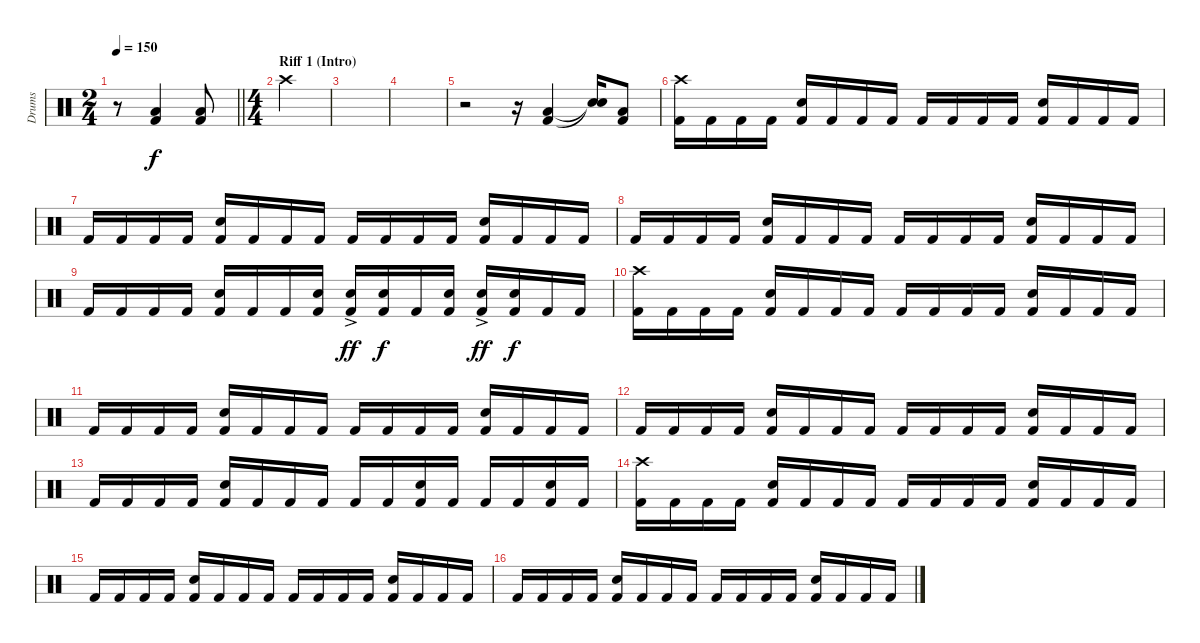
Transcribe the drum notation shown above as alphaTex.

\track ("Drums" "Drums") {instrument percussion}
\staff {score}
\articulation defaults
\ts (2 4)
\tempo 150
\clef neutral
\barLineRight lightlight
\ks c
r.8{dy f} ("Low Tom (hit)" "Kick (hit) 2").4 ("Low Tom (hit)" "Kick (hit) 2").8 |
\ts (4 4)
\section ("" "Riff 1 (Intro)")
"Crash high (hit)".4 |
|
|
r.2 r.16 ("Low Tom (hit)" "Kick (hit) 2").4 ("Snare (hit)"{t} "Snare (hit)"{t}).16 ("Low Tom (hit)" "Kick (hit) 2").8 |
("Crash high (hit)" "Kick (hit) 2").16 "Kick (hit) 2".16 "Kick (hit) 2".16 "Kick (hit) 2".16 ("Snare (hit) 2" "Kick (hit) 2").16 "Kick (hit) 2".16 "Kick (hit) 2".16 "Kick (hit) 2".16 "Kick (hit) 2".16 "Kick (hit) 2".16 "Kick (hit) 2".16 "Kick (hit) 2".16 ("Snare (hit) 2" "Kick (hit) 2").16 "Kick (hit) 2".16 "Kick (hit) 2".16 "Kick (hit) 2".16 |
"Kick (hit) 2".16 "Kick (hit) 2".16 "Kick (hit) 2".16 "Kick (hit) 2".16 ("Snare (hit) 2" "Kick (hit) 2").16 "Kick (hit) 2".16 "Kick (hit) 2".16 "Kick (hit) 2".16 "Kick (hit) 2".16 "Kick (hit) 2".16 "Kick (hit) 2".16 "Kick (hit) 2".16 ("Snare (hit) 2" "Kick (hit) 2").16 "Kick (hit) 2".16 "Kick (hit) 2".16 "Kick (hit) 2".16 |
"Kick (hit) 2".16 "Kick (hit) 2".16 "Kick (hit) 2".16 "Kick (hit) 2".16 ("Snare (hit) 2" "Kick (hit) 2").16 "Kick (hit) 2".16 "Kick (hit) 2".16 "Kick (hit) 2".16 "Kick (hit) 2".16 "Kick (hit) 2".16 "Kick (hit) 2".16 "Kick (hit) 2".16 ("Snare (hit) 2" "Kick (hit) 2").16 "Kick (hit) 2".16 "Kick (hit) 2".16 "Kick (hit) 2".16 |
"Kick (hit) 2".16 "Kick (hit) 2".16 "Kick (hit) 2".16 "Kick (hit) 2".16 ("Snare (hit) 2" "Kick (hit) 2").16 "Kick (hit) 2".16 "Kick (hit) 2".16 ("Snare (hit) 2" "Kick (hit) 2").16 ("Snare (hit) 2"{ac} "Kick (hit) 2").16{dy ff} ("Snare (hit) 2" "Kick (hit) 2").16{dy f} "Kick (hit) 2".16 ("Snare (hit) 2" "Kick (hit) 2").16 ("Snare (hit) 2"{ac} "Kick (hit) 2").16{dy ff} ("Snare (hit) 2" "Kick (hit) 2").16{dy f} "Kick (hit) 2".16 "Kick (hit) 2".16 |
("Crash high (hit)" "Kick (hit) 2").16 "Kick (hit) 2".16 "Kick (hit) 2".16 "Kick (hit) 2".16 ("Snare (hit) 2" "Kick (hit) 2").16 "Kick (hit) 2".16 "Kick (hit) 2".16 "Kick (hit) 2".16 "Kick (hit) 2".16 "Kick (hit) 2".16 "Kick (hit) 2".16 "Kick (hit) 2".16 ("Snare (hit) 2" "Kick (hit) 2").16 "Kick (hit) 2".16 "Kick (hit) 2".16 "Kick (hit) 2".16 |
"Kick (hit) 2".16 "Kick (hit) 2".16 "Kick (hit) 2".16 "Kick (hit) 2".16 ("Snare (hit) 2" "Kick (hit) 2").16 "Kick (hit) 2".16 "Kick (hit) 2".16 "Kick (hit) 2".16 "Kick (hit) 2".16 "Kick (hit) 2".16 "Kick (hit) 2".16 "Kick (hit) 2".16 ("Snare (hit) 2" "Kick (hit) 2").16 "Kick (hit) 2".16 "Kick (hit) 2".16 "Kick (hit) 2".16 |
"Kick (hit) 2".16 "Kick (hit) 2".16 "Kick (hit) 2".16 "Kick (hit) 2".16 ("Snare (hit) 2" "Kick (hit) 2").16 "Kick (hit) 2".16 "Kick (hit) 2".16 "Kick (hit) 2".16 "Kick (hit) 2".16 "Kick (hit) 2".16 "Kick (hit) 2".16 "Kick (hit) 2".16 ("Snare (hit) 2" "Kick (hit) 2").16 "Kick (hit) 2".16 "Kick (hit) 2".16 "Kick (hit) 2".16 |
"Kick (hit) 2".16 "Kick (hit) 2".16 "Kick (hit) 2".16 "Kick (hit) 2".16 ("Snare (hit) 2" "Kick (hit) 2").16 "Kick (hit) 2".16 "Kick (hit) 2".16 "Kick (hit) 2".16 "Kick (hit) 2".16 "Kick (hit) 2".16 ("Snare (hit) 2" "Kick (hit) 2").16 "Kick (hit) 2".16 "Kick (hit) 2".16 "Kick (hit) 2".16 ("Snare (hit) 2" "Kick (hit) 2").16 "Kick (hit) 2".16 |
("Crash high (hit)" "Kick (hit) 2").16 "Kick (hit) 2".16 "Kick (hit) 2".16 "Kick (hit) 2".16 ("Snare (hit) 2" "Kick (hit) 2").16 "Kick (hit) 2".16 "Kick (hit) 2".16 "Kick (hit) 2".16 "Kick (hit) 2".16 "Kick (hit) 2".16 "Kick (hit) 2".16 "Kick (hit) 2".16 ("Snare (hit) 2" "Kick (hit) 2").16 "Kick (hit) 2".16 "Kick (hit) 2".16 "Kick (hit) 2".16 |
"Kick (hit) 2".16 "Kick (hit) 2".16 "Kick (hit) 2".16 "Kick (hit) 2".16 ("Snare (hit) 2" "Kick (hit) 2").16 "Kick (hit) 2".16 "Kick (hit) 2".16 "Kick (hit) 2".16 "Kick (hit) 2".16 "Kick (hit) 2".16 "Kick (hit) 2".16 "Kick (hit) 2".16 ("Snare (hit) 2" "Kick (hit) 2").16 "Kick (hit) 2".16 "Kick (hit) 2".16 "Kick (hit) 2".16 |
"Kick (hit) 2".16 "Kick (hit) 2".16 "Kick (hit) 2".16 "Kick (hit) 2".16 ("Snare (hit) 2" "Kick (hit) 2").16 "Kick (hit) 2".16 "Kick (hit) 2".16 "Kick (hit) 2".16 "Kick (hit) 2".16 "Kick (hit) 2".16 "Kick (hit) 2".16 "Kick (hit) 2".16 ("Snare (hit) 2" "Kick (hit) 2").16 "Kick (hit) 2".16 "Kick (hit) 2".16 "Kick (hit) 2".16
